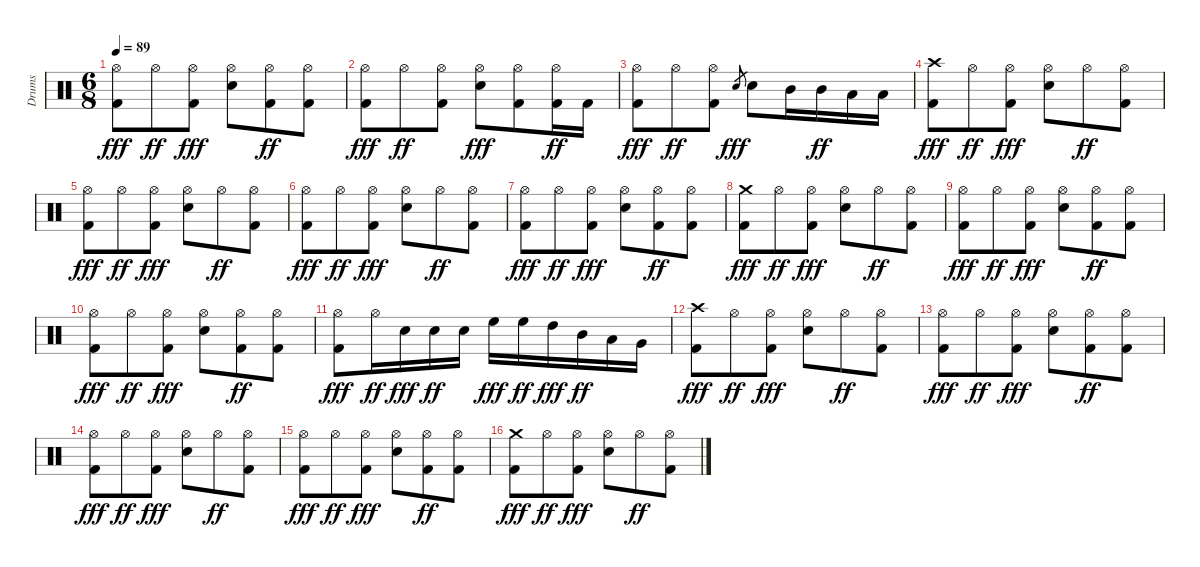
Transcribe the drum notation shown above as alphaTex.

\track ("Drums" "Drums") {instrument percussion}
\staff {score}
\articulation defaults
\ts (6 8)
\tempo 89
\clef neutral
\ks c
("Hi-Hat (open)" "Kick (hit) 2").8{dy fff} "Hi-Hat (open)".8{dy ff} ("Hi-Hat (open)" "Kick (hit) 2").8{dy fff} ("Hi-Hat (open)" "Snare (hit) 2").8 ("Hi-Hat (open)" "Kick (hit) 2").8{dy ff} ("Hi-Hat (open)" "Kick (hit) 2").8 |
("Hi-Hat (open)" "Kick (hit) 2").8{dy fff} "Hi-Hat (open)".8{dy ff} ("Hi-Hat (open)" "Kick (hit) 2").8 ("Hi-Hat (open)" "Snare (hit) 2").8{dy fff} ("Hi-Hat (open)" "Kick (hit) 2").8 ("Hi-Hat (open)" "Kick (hit) 2").16{dy ff} "Kick (hit) 2".16 |
("Hi-Hat (open)" "Kick (hit) 2").8{dy fff} "Hi-Hat (open)".8{dy ff} ("Hi-Hat (open)" "Kick (hit) 2").8 "Snare (hit) 2".8{gr dy fff} "Snare (hit) 2".8 "Mid Tom (hit)".16 "Mid Tom (hit)".16{dy ff} "Low Tom (hit)".16 "Low Tom (hit)".16 |
("Kick (hit) 2" "Crash high (hit)").8{dy fff} "Hi-Hat (open)".8{dy ff} ("Hi-Hat (open)" "Kick (hit) 2").8{dy fff} ("Hi-Hat (open)" "Snare (hit) 2").8 "Hi-Hat (open)".8{dy ff} ("Hi-Hat (open)" "Kick (hit) 2").8 |
("Hi-Hat (open)" "Kick (hit) 2").8{dy fff} "Hi-Hat (open)".8{dy ff} ("Hi-Hat (open)" "Kick (hit) 2").8{dy fff} ("Hi-Hat (open)" "Snare (hit) 2").8 "Hi-Hat (open)".8{dy ff} ("Hi-Hat (open)" "Kick (hit) 2").8 |
("Hi-Hat (open)" "Kick (hit) 2").8{dy fff} "Hi-Hat (open)".8{dy ff} ("Hi-Hat (open)" "Kick (hit) 2").8{dy fff} ("Hi-Hat (open)" "Snare (hit) 2").8 "Hi-Hat (open)".8{dy ff} ("Hi-Hat (open)" "Kick (hit) 2").8 |
("Hi-Hat (open)" "Kick (hit) 2").8{dy fff} "Hi-Hat (open)".8{dy ff} ("Hi-Hat (open)" "Kick (hit) 2").8{dy fff} ("Hi-Hat (open)" "Snare (hit) 2").8 ("Hi-Hat (open)" "Kick (hit) 2").8{dy ff} ("Hi-Hat (open)" "Kick (hit) 2").8 |
("Kick (hit) 2" "Crash medium (hit)").8{dy fff} "Hi-Hat (open)".8{dy ff} ("Hi-Hat (open)" "Kick (hit) 2").8{dy fff} ("Hi-Hat (open)" "Snare (hit) 2").8 "Hi-Hat (open)".8{dy ff} ("Hi-Hat (open)" "Kick (hit) 2").8 |
("Hi-Hat (open)" "Kick (hit) 2").8{dy fff} "Hi-Hat (open)".8{dy ff} ("Hi-Hat (open)" "Kick (hit) 2").8{dy fff} ("Hi-Hat (open)" "Snare (hit) 2").8 ("Hi-Hat (open)" "Kick (hit) 2").8{dy ff} ("Hi-Hat (open)" "Kick (hit) 2").8 |
("Hi-Hat (open)" "Kick (hit) 2").8{dy fff} "Hi-Hat (open)".8{dy ff} ("Hi-Hat (open)" "Kick (hit) 2").8{dy fff} ("Hi-Hat (open)" "Snare (hit) 2").8 ("Hi-Hat (open)" "Kick (hit) 2").8{dy ff} ("Hi-Hat (open)" "Kick (hit) 2").8 |
("Hi-Hat (open)" "Kick (hit) 2").8{dy fff} "Hi-Hat (open)".16{dy ff} "Snare (hit) 2".16{dy fff} "Snare (hit) 2".16{dy ff} "Snare (hit) 2".16 "High Floor Tom (hit)".16{dy fff} "High Floor Tom (hit)".16{dy ff} "High Tom (hit)".16{dy fff} "Mid Tom (hit)".16{dy ff} "Low Tom (hit)".16 "Very Low Tom (hit)".16 |
("Kick (hit) 2" "Crash high (hit)").8{dy fff} "Hi-Hat (open)".8{dy ff} ("Hi-Hat (open)" "Kick (hit) 2").8{dy fff} ("Hi-Hat (open)" "Snare (hit) 2").8 "Hi-Hat (open)".8{dy ff} ("Hi-Hat (open)" "Kick (hit) 2").8 |
("Hi-Hat (open)" "Kick (hit) 2").8{dy fff} "Hi-Hat (open)".8{dy ff} ("Hi-Hat (open)" "Kick (hit) 2").8{dy fff} ("Hi-Hat (open)" "Snare (hit) 2").8 ("Hi-Hat (open)" "Kick (hit) 2").8{dy ff} ("Hi-Hat (open)" "Kick (hit) 2").8 |
("Hi-Hat (open)" "Kick (hit) 2").8{dy fff} "Hi-Hat (open)".8{dy ff} ("Hi-Hat (open)" "Kick (hit) 2").8{dy fff} ("Hi-Hat (open)" "Snare (hit) 2").8 "Hi-Hat (open)".8{dy ff} ("Hi-Hat (open)" "Kick (hit) 2").8 |
("Hi-Hat (open)" "Kick (hit) 2").8{dy fff} "Hi-Hat (open)".8{dy ff} ("Hi-Hat (open)" "Kick (hit) 2").8{dy fff} ("Hi-Hat (open)" "Snare (hit) 2").8 ("Hi-Hat (open)" "Kick (hit) 2").8{dy ff} ("Hi-Hat (open)" "Kick (hit) 2").8 |
("Kick (hit) 2" "Crash medium (hit)").8{dy fff} "Hi-Hat (open)".8{dy ff} ("Hi-Hat (open)" "Kick (hit) 2").8{dy fff} ("Hi-Hat (open)" "Snare (hit) 2").8 "Hi-Hat (open)".8{dy ff} ("Hi-Hat (open)" "Kick (hit) 2").8
